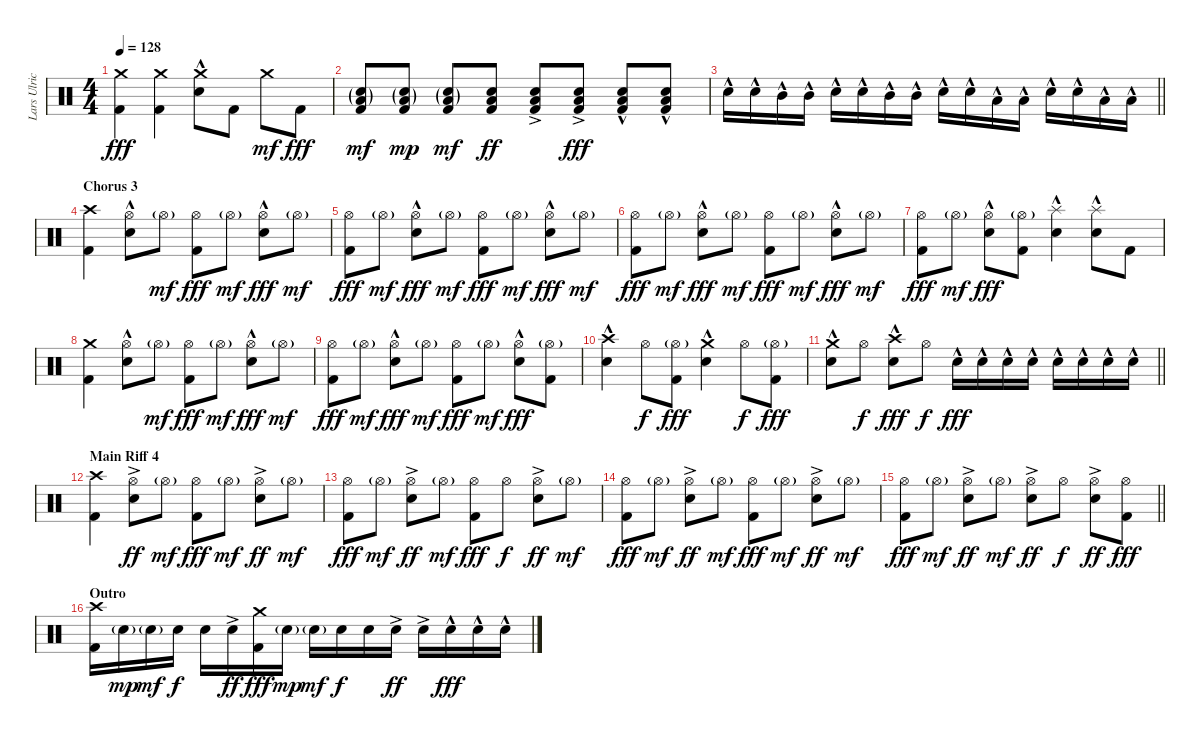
\track ("Lars Ulrich (Drums)" "Lars Ulric") {instrument percussion}
\staff {score}
\articulation defaults
\ts (4 4)
\tempo 128
\clef neutral
\ks c
("Crash medium (hit)" "Kick (hit) 2").4{dy fff} ("Crash medium (hit)" "Kick (hit) 2").4 ("Crash medium (hit)" "Electric Snare (hit)"{hac}).8 "Kick (hit) 2".8 "Crash medium (hit)".8{dy mf} "Kick (hit) 2".8{dy fff} |
("Low Tom (hit)"{g} "Electric Snare (hit)"{g} "Kick (hit) 2").8{dy mf} ("Low Tom (hit)"{g} "Electric Snare (hit)"{g} "Kick (hit) 2").8{dy mp} ("Low Tom (hit)"{g} "Electric Snare (hit)"{g} "Kick (hit) 2").8{dy mf} ("Low Tom (hit)" "Electric Snare (hit)" "Kick (hit) 2").8{dy ff} ("Low Tom (hit)"{ac} "Electric Snare (hit)"{ac} "Kick (hit) 2").8 ("Low Tom (hit)"{ac} "Electric Snare (hit)"{ac} "Kick (hit) 2").8{dy fff} ("Low Tom (hit)"{hac} "Electric Snare (hit)"{hac} "Kick (hit) 2").8 ("Low Tom (hit)"{hac} "Electric Snare (hit)"{hac} "Kick (hit) 2").8 |
\barLineRight lightlight "Electric Snare (hit)"{hac}.16 "Electric Snare (hit)"{hac}.16 "Mid Tom (hit)"{hac}.16 "Mid Tom (hit)"{hac}.16 "Electric Snare (hit)"{hac}.16 "Electric Snare (hit)"{hac}.16 "Mid Tom (hit)"{hac}.16 "Mid Tom (hit)"{hac}.16 "Electric Snare (hit)"{hac}.16 "Electric Snare (hit)"{hac}.16 "Low Tom (hit)"{hac}.16 "Low Tom (hit)"{hac}.16 "Electric Snare (hit)"{hac}.16 "Electric Snare (hit)"{hac}.16 "Low Tom (hit)"{hac}.16 "Low Tom (hit)"{hac}.16
|
\section ("" "Chorus 3")
("Crash high (hit)" "Kick (hit) 2").4 ("Hi-Hat (open)" "Electric Snare (hit)"{hac}).8 "Hi-Hat (open)"{g}.8{dy mf} ("Hi-Hat (open)" "Kick (hit) 2").8{dy fff} "Hi-Hat (open)"{g}.8{dy mf} ("Hi-Hat (open)" "Electric Snare (hit)"{hac}).8{dy fff} "Hi-Hat (open)"{g}.8{dy mf} |
("Hi-Hat (open)" "Kick (hit) 2").8{dy fff} "Hi-Hat (open)"{g}.8{dy mf} ("Hi-Hat (open)" "Electric Snare (hit)"{hac}).8{dy fff} "Hi-Hat (open)"{g}.8{dy mf} ("Hi-Hat (open)" "Kick (hit) 2").8{dy fff} "Hi-Hat (open)"{g}.8{dy mf} ("Hi-Hat (open)" "Electric Snare (hit)"{hac}).8{dy fff} "Hi-Hat (open)"{g}.8{dy mf} |
("Hi-Hat (open)" "Kick (hit) 2").8{dy fff} "Hi-Hat (open)"{g}.8{dy mf} ("Hi-Hat (open)" "Electric Snare (hit)"{hac}).8{dy fff} "Hi-Hat (open)"{g}.8{dy mf} ("Hi-Hat (open)" "Kick (hit) 2").8{dy fff} "Hi-Hat (open)"{g}.8{dy mf} ("Hi-Hat (open)" "Electric Snare (hit)"{hac}).8{dy fff} "Hi-Hat (open)"{g}.8{dy mf} |
("Hi-Hat (open)" "Kick (hit) 2").8{dy fff} "Hi-Hat (open)"{g}.8{dy mf} ("Hi-Hat (open)" "Electric Snare (hit)"{hac}).8{dy fff} ("Hi-Hat (open)"{g} "Kick (hit) 2").8 ("Splash (hit)" "Electric Snare (hit)"{hac}).4 ("Splash (hit)" "Electric Snare (hit)"{hac}).8 "Kick (hit) 2".8 |
("Crash medium (hit)" "Kick (hit) 2").4 ("Hi-Hat (open)" "Electric Snare (hit)"{hac}).8 "Hi-Hat (open)"{g}.8{dy mf} ("Hi-Hat (open)" "Kick (hit) 2").8{dy fff} "Hi-Hat (open)"{g}.8{dy mf} ("Hi-Hat (open)" "Electric Snare (hit)"{hac}).8{dy fff} "Hi-Hat (open)"{g}.8{dy mf} |
("Hi-Hat (open)" "Kick (hit) 2").8{dy fff} "Hi-Hat (open)"{g}.8{dy mf} ("Hi-Hat (open)" "Electric Snare (hit)"{hac}).8{dy fff} "Hi-Hat (open)"{g}.8{dy mf} ("Hi-Hat (open)" "Kick (hit) 2").8{dy fff} "Hi-Hat (open)"{g}.8{dy mf} ("Hi-Hat (open)" "Electric Snare (hit)"{hac}).8{dy fff} ("Hi-Hat (open)"{g} "Kick (hit) 2").8 |
("Crash high (hit)" "Electric Snare (hit)"{hac}).4 "Hi-Hat (open)".8{dy f} ("Hi-Hat (open)"{g} "Kick (hit) 2").8{dy fff} ("Crash medium (hit)" "Electric Snare (hit)"{hac}).4 "Hi-Hat (open)".8{dy f} ("Hi-Hat (open)"{g} "Kick (hit) 2").8{dy fff} |
\barLineRight lightlight
("Crash medium (hit)" "Electric Snare (hit)"{hac}).8 "Hi-Hat (open)".8{dy f} ("Crash high (hit)" "Electric Snare (hit)"{hac}).8{dy fff} "Hi-Hat (open)".8{dy f} "Electric Snare (hit)"{hac}.16{dy fff} "Electric Snare (hit)"{hac}.16 "Electric Snare (hit)"{hac}.16 "Electric Snare (hit)"{hac}.16 "Electric Snare (hit)"{hac}.16 "Electric Snare (hit)"{hac}.16 "Electric Snare (hit)"{hac}.16 "Electric Snare (hit)"{hac}.16 |
\section ("" "Main Riff 4")
("Crash high (hit)" "Kick (hit) 2").4 ("Hi-Hat (open)"{ac} "Electric Snare (hit)"{ac}).8{dy ff} "Hi-Hat (open)"{g}.8{dy mf} ("Hi-Hat (open)" "Kick (hit) 2").8{dy fff} "Hi-Hat (open)"{g}.8{dy mf} ("Hi-Hat (open)"{ac} "Electric Snare (hit)"{ac}).8{dy ff} "Hi-Hat (open)"{g}.8{dy mf} |
("Hi-Hat (open)" "Kick (hit) 2").8{dy fff} "Hi-Hat (open)"{g}.8{dy mf} ("Hi-Hat (open)"{ac} "Electric Snare (hit)"{ac}).8{dy ff} "Hi-Hat (open)"{g}.8{dy mf} ("Hi-Hat (open)" "Kick (hit) 2").8{dy fff} "Hi-Hat (open)".8{dy f} ("Hi-Hat (open)"{ac} "Electric Snare (hit)"{ac}).8{dy ff} "Hi-Hat (open)"{g}.8{dy mf} |
("Hi-Hat (open)" "Kick (hit) 2").8{dy fff} "Hi-Hat (open)"{g}.8{dy mf} ("Hi-Hat (open)"{ac} "Electric Snare (hit)"{ac}).8{dy ff} "Hi-Hat (open)"{g}.8{dy mf} ("Hi-Hat (open)" "Kick (hit) 2").8{dy fff} "Hi-Hat (open)"{g}.8{dy mf} ("Hi-Hat (open)"{ac} "Electric Snare (hit)"{ac}).8{dy ff} "Hi-Hat (open)"{g}.8{dy mf} |
\barLineRight lightlight
("Hi-Hat (open)" "Kick (hit) 2").8{dy fff} "Hi-Hat (open)"{g}.8{dy mf} ("Hi-Hat (open)"{ac} "Electric Snare (hit)"{ac}).8{dy ff} "Hi-Hat (open)"{g}.8{dy mf} ("Hi-Hat (open)"{ac} "Electric Snare (hit)"{ac}).8{dy ff} "Hi-Hat (open)".8{dy f} ("Hi-Hat (open)"{ac} "Electric Snare (hit)"{ac}).8{dy ff} ("Hi-Hat (open)" "Kick (hit) 2").8{dy fff} |
\section ("" "Outro")
("Crash high (hit)" "Kick (hit) 2").16 "Electric Snare (hit)"{g}.16{dy mp} "Electric Snare (hit)"{g}.16{dy mf} "Electric Snare (hit)".16{dy f} "Electric Snare (hit)".16 "Electric Snare (hit)"{ac}.16{dy ff} ("Crash medium (hit)" "Kick (hit) 2").16{dy fff} "Electric Snare (hit)"{g}.16{dy mp} "Electric Snare (hit)"{g}.16{dy mf} "Electric Snare (hit)".16{dy f} "Electric Snare (hit)".16 "Electric Snare (hit)"{ac}.16{dy ff} "Electric Snare (hit)"{ac}.16 "Electric Snare (hit)"{hac}.16{dy fff} "Electric Snare (hit)"{hac}.16 "Electric Snare (hit)"{hac}.16
